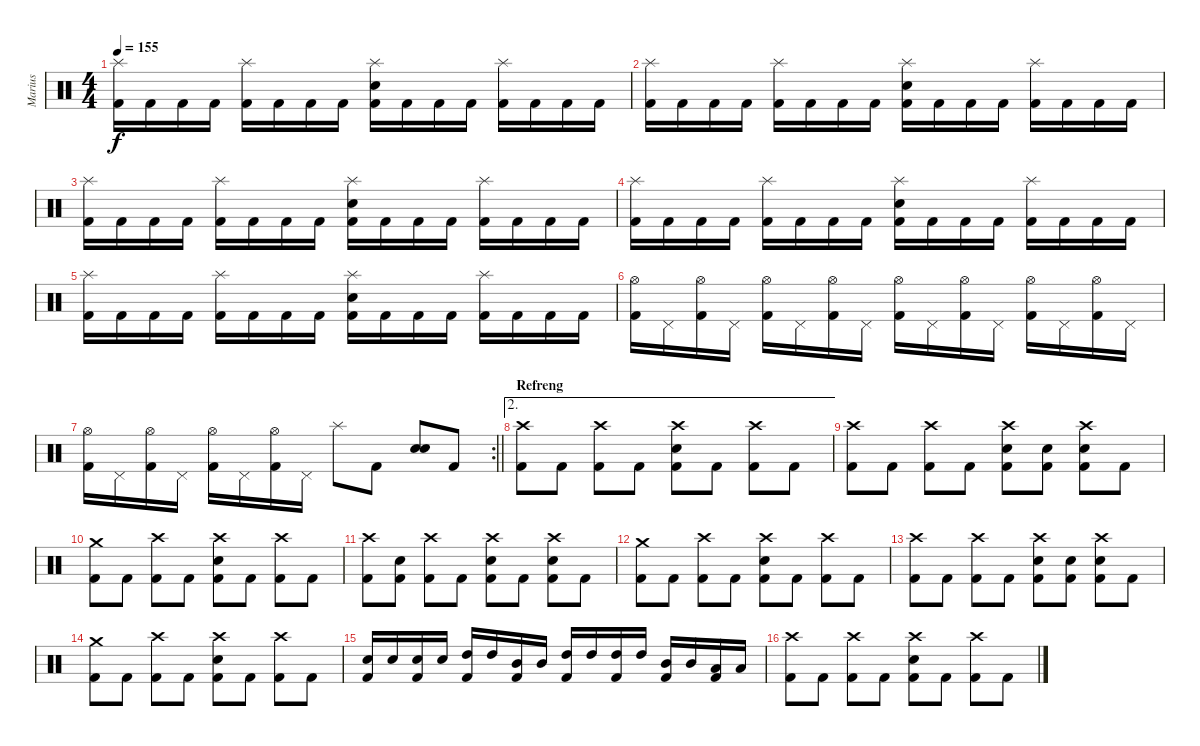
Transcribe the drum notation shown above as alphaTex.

\track ("Marius" "Marius") {instrument percussion}
\staff {score}
\articulation defaults
\ts (4 4)
\tempo 155
\clef neutral
\ks c
("Splash (hit)" "Kick (hit) 2").16{dy f} "Kick (hit) 2".16 "Kick (hit) 2".16 "Kick (hit) 2".16 ("Splash (hit)" "Kick (hit) 2").16 "Kick (hit) 2".16 "Kick (hit) 2".16 "Kick (hit) 2".16 ("Splash (hit)" "Snare (hit) 2" "Kick (hit) 2").16 "Kick (hit) 2".16 "Kick (hit) 2".16 "Kick (hit) 2".16 ("Splash (hit)" "Kick (hit) 2").16 "Kick (hit) 2".16 "Kick (hit) 2".16 "Kick (hit) 2".16 |
("Splash (hit)" "Kick (hit) 2").16 "Kick (hit) 2".16 "Kick (hit) 2".16 "Kick (hit) 2".16 ("Splash (hit)" "Kick (hit) 2").16 "Kick (hit) 2".16 "Kick (hit) 2".16 "Kick (hit) 2".16 ("Splash (hit)" "Snare (hit) 2" "Kick (hit) 2").16 "Kick (hit) 2".16 "Kick (hit) 2".16 "Kick (hit) 2".16 ("Splash (hit)" "Kick (hit) 2").16 "Kick (hit) 2".16 "Kick (hit) 2".16 "Kick (hit) 2".16 |
("Splash (hit)" "Kick (hit) 2").16 "Kick (hit) 2".16 "Kick (hit) 2".16 "Kick (hit) 2".16 ("Splash (hit)" "Kick (hit) 2").16 "Kick (hit) 2".16 "Kick (hit) 2".16 "Kick (hit) 2".16 ("Splash (hit)" "Snare (hit) 2" "Kick (hit) 2").16 "Kick (hit) 2".16 "Kick (hit) 2".16 "Kick (hit) 2".16 ("Splash (hit)" "Kick (hit) 2").16 "Kick (hit) 2".16 "Kick (hit) 2".16 "Kick (hit) 2".16 |
("Splash (hit)" "Kick (hit) 2").16 "Kick (hit) 2".16 "Kick (hit) 2".16 "Kick (hit) 2".16 ("Splash (hit)" "Kick (hit) 2").16 "Kick (hit) 2".16 "Kick (hit) 2".16 "Kick (hit) 2".16 ("Splash (hit)" "Snare (hit) 2" "Kick (hit) 2").16 "Kick (hit) 2".16 "Kick (hit) 2".16 "Kick (hit) 2".16 ("Splash (hit)" "Kick (hit) 2").16 "Kick (hit) 2".16 "Kick (hit) 2".16 "Kick (hit) 2".16 |
("Splash (hit)" "Kick (hit) 2").16 "Kick (hit) 2".16 "Kick (hit) 2".16 "Kick (hit) 2".16 ("Splash (hit)" "Kick (hit) 2").16 "Kick (hit) 2".16 "Kick (hit) 2".16 "Kick (hit) 2".16 ("Splash (hit)" "Snare (hit) 2" "Kick (hit) 2").16 "Kick (hit) 2".16 "Kick (hit) 2".16 "Kick (hit) 2".16 ("Splash (hit)" "Kick (hit) 2").16 "Kick (hit) 2".16 "Kick (hit) 2".16 "Kick (hit) 2".16 |
("Hi-Hat (open)" "Kick (hit) 2").16 "Pedal Hi-Hat (hit)".16 ("Hi-Hat (open)" "Kick (hit) 2").16 "Pedal Hi-Hat (hit)".16 ("Hi-Hat (open)" "Kick (hit) 2").16 "Pedal Hi-Hat (hit)".16 ("Hi-Hat (open)" "Kick (hit) 2").16 "Pedal Hi-Hat (hit)".16 ("Hi-Hat (open)" "Kick (hit) 2").16 "Pedal Hi-Hat (hit)".16 ("Hi-Hat (open)" "Kick (hit) 2").16 "Pedal Hi-Hat (hit)".16 ("Hi-Hat (open)" "Kick (hit) 2").16 "Pedal Hi-Hat (hit)".16 ("Hi-Hat (open)" "Kick (hit) 2").16 "Pedal Hi-Hat (hit)".16 |
\rc 2
\barLineRight lightlight
("Hi-Hat (open)" "Kick (hit) 2").16 "Pedal Hi-Hat (hit)".16 ("Hi-Hat (open)" "Kick (hit) 2").16 "Pedal Hi-Hat (hit)".16 ("Hi-Hat (open)" "Kick (hit) 2").16 "Pedal Hi-Hat (hit)".16 ("Hi-Hat (open)" "Kick (hit) 2").16 "Pedal Hi-Hat (hit)".16 "Splash (hit)".8 "Kick (hit) 2".8 ("Snare (hit) 2" "Snare (hit) 2").8{bd 60} "Kick (hit) 2".8 |
\ae 2
\section ("" "Refreng")
("Crash high (hit)" "Kick (hit) 2").8 "Kick (hit) 2".8 ("Crash high (hit)" "Kick (hit) 2").8 "Kick (hit) 2".8 ("Crash high (hit)" "Snare (hit) 2" "Kick (hit) 2").8 "Kick (hit) 2".8 ("Crash high (hit)" "Kick (hit) 2").8 "Kick (hit) 2".8 |
("Crash high (hit)" "Kick (hit) 2").8 "Kick (hit) 2".8 ("Crash high (hit)" "Kick (hit) 2").8 "Kick (hit) 2".8 ("Crash high (hit)" "Snare (hit) 2" "Kick (hit) 2").8 ("Snare (hit) 2" "Kick (hit) 2").8 ("Crash high (hit)" "Snare (hit) 2" "Kick (hit) 2").8 "Kick (hit) 2".8 |
("Crash medium (hit)" "Kick (hit) 2").8 "Kick (hit) 2".8 ("Crash high (hit)" "Kick (hit) 2").8 "Kick (hit) 2".8 ("Crash high (hit)" "Snare (hit) 2" "Kick (hit) 2").8 "Kick (hit) 2".8 ("Crash high (hit)" "Kick (hit) 2").8 "Kick (hit) 2".8 |
("Crash high (hit)" "Kick (hit) 2").8 ("Snare (hit) 2" "Kick (hit) 2").8 ("Crash high (hit)" "Kick (hit) 2").8 "Kick (hit) 2".8 ("Crash high (hit)" "Snare (hit) 2" "Kick (hit) 2").8 "Kick (hit) 2".8 ("Crash high (hit)" "Snare (hit) 2" "Kick (hit) 2").8 "Kick (hit) 2".8 |
("Crash medium (hit)" "Kick (hit) 2").8 "Kick (hit) 2".8 ("Crash high (hit)" "Kick (hit) 2").8 "Kick (hit) 2".8 ("Crash high (hit)" "Snare (hit) 2" "Kick (hit) 2").8 "Kick (hit) 2".8 ("Crash high (hit)" "Kick (hit) 2").8 "Kick (hit) 2".8 |
("Crash high (hit)" "Kick (hit) 2").8 "Kick (hit) 2".8 ("Crash high (hit)" "Kick (hit) 2").8 "Kick (hit) 2".8 ("Crash high (hit)" "Snare (hit) 2" "Kick (hit) 2").8 ("Snare (hit) 2" "Kick (hit) 2").8 ("Crash high (hit)" "Snare (hit) 2" "Kick (hit) 2").8 "Kick (hit) 2".8 |
("Crash medium (hit)" "Kick (hit) 2").8 "Kick (hit) 2".8 ("Crash high (hit)" "Kick (hit) 2").8 "Kick (hit) 2".8 ("Crash high (hit)" "Snare (hit) 2" "Kick (hit) 2").8 "Kick (hit) 2".8 ("Crash high (hit)" "Kick (hit) 2").8 "Kick (hit) 2".8 |
("Snare (hit) 2" "Kick (hit) 2").16 "Snare (hit) 2".16 ("Snare (hit) 2" "Kick (hit) 2").16 "Snare (hit) 2".16 ("High Tom (hit)" "Kick (hit) 2").16 "High Tom (hit)".16 ("Mid Tom (hit)" "Kick (hit) 2").16 "Mid Tom (hit)".16 ("High Tom (hit)" "Kick (hit) 2").16 "High Tom (hit)".16 ("High Tom (hit)" "Kick (hit) 2").16 "High Tom (hit)".16 ("Mid Tom (hit)" "Kick (hit) 2").16 "Mid Tom (hit)".16 ("Low Tom (hit)" "Kick (hit) 2").16 "Low Tom (hit)".16 |
("Crash high (hit)" "Kick (hit) 2").8 "Kick (hit) 2".8 ("Crash high (hit)" "Kick (hit) 2").8 "Kick (hit) 2".8 ("Crash high (hit)" "Snare (hit) 2" "Kick (hit) 2").8 "Kick (hit) 2".8 ("Crash high (hit)" "Kick (hit) 2").8 "Kick (hit) 2".8
